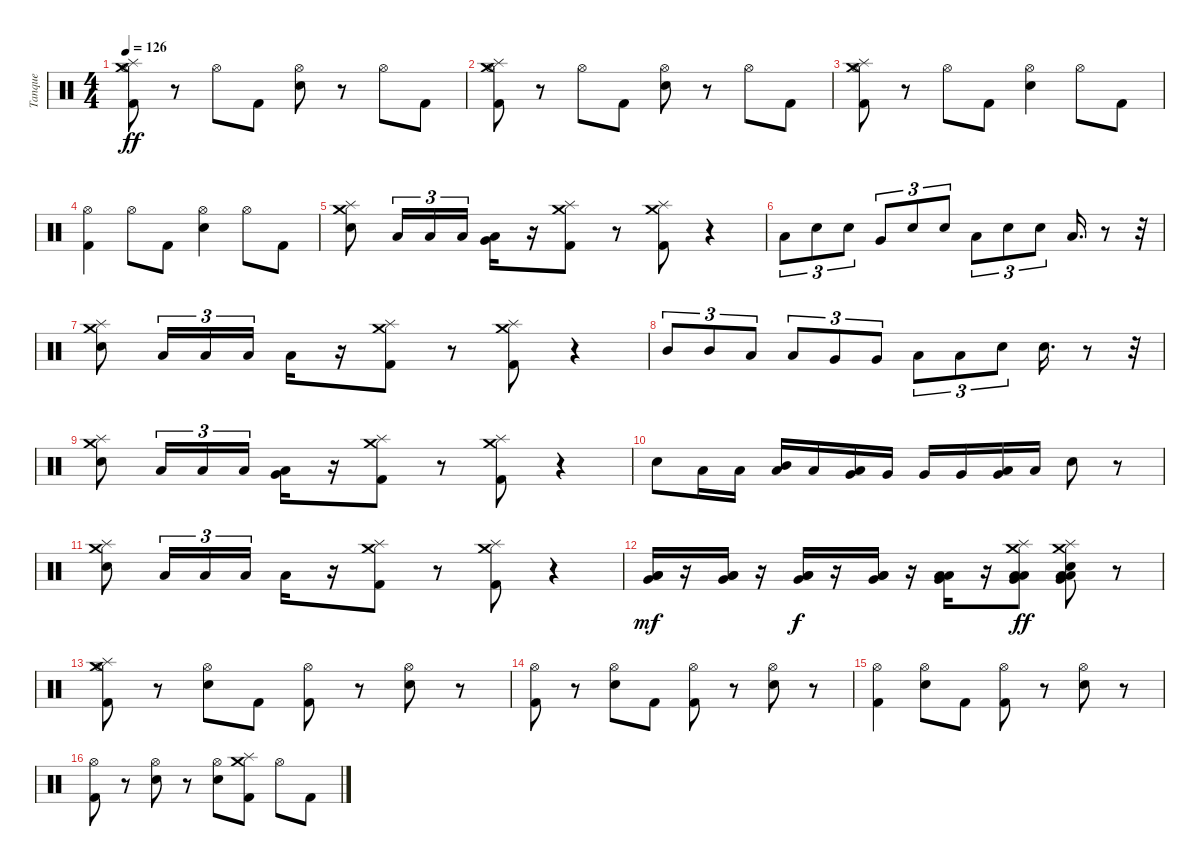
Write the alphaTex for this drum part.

\track ("Tanque" "Tanque") {instrument percussion}
\staff {score}
\articulation defaults
\ts (4 4)
\tempo 126
\clef neutral
\ks c
("Splash (hit)" "Kick (hit) 2" "Crash medium (hit)" "Hi-Hat (open)").8{dy ff} r.8 "Hi-Hat (open)".8 "Kick (hit) 2".8 ("Snare (hit) 2" "Hi-Hat (open)").8 r.8 "Hi-Hat (open)".8 "Kick (hit) 2".8 |
("Kick (hit) 2" "Splash (hit)" "Crash medium (hit)" "Hi-Hat (open)").8 r.8 "Hi-Hat (open)".8 "Kick (hit) 2".8 ("Snare (hit) 2" "Hi-Hat (open)").8 r.8 "Hi-Hat (open)".8 "Kick (hit) 2".8 |
("Hi-Hat (open)" "Crash medium (hit)" "Kick (hit) 2" "Splash (hit)").8 r.8 "Hi-Hat (open)".8 "Kick (hit) 2".8 ("Hi-Hat (open)" "Snare (hit) 2").4 "Hi-Hat (open)".8 "Kick (hit) 2".8 |
("Hi-Hat (open)" "Kick (hit) 2").4 "Hi-Hat (open)".8 "Kick (hit) 2".8 ("Hi-Hat (open)" "Snare (hit) 2").4 "Hi-Hat (open)".8 "Kick (hit) 2".8 |
("Snare (hit) 2" "Splash (hit)" "Crash medium (hit)").8 "Low Tom (hit)".16{tu (3 2)} "Low Floor Tom (hit)".16{tu (3 2)} "Low Tom (hit)".16{tu (3 2)} ("Very Low Tom (hit)" "Low Floor Tom (hit)").16 r.16 ("Kick (hit) 2" "Splash (hit)" "Crash medium (hit)").8 r.8 ("Kick (hit) 2" "Splash (hit)" "Crash medium (hit)").8 r.4 |
"Low Tom (hit)".8{tu (3 2)} "Snare (hit) 2".8{tu (3 2)} "Snare (hit) 2".8{tu (3 2)} "Very Low Tom (hit)".8{tu (3 2)} "Snare (hit) 2".8{tu (3 2)} "Snare (hit) 2".8{tu (3 2)} "Low Floor Tom (hit)".8{tu (3 2)} "Snare (hit) 2".8{tu (3 2)} "Snare (hit) 2".8{tu (3 2)} "Low Floor Tom (hit)".16{d} r.8 r.32 |
("Snare (hit) 2" "Crash medium (hit)" "Splash (hit)").8 "Low Tom (hit)".16{tu (3 2)} "Low Floor Tom (hit)".16{tu (3 2)} "Low Tom (hit)".16{tu (3 2)} "Low Floor Tom (hit)".16 r.16 ("Kick (hit) 2" "Splash (hit)" "Crash medium (hit)").8 r.8 ("Kick (hit) 2" "Splash (hit)" "Crash medium (hit)").8 r.4 |
"Mid Tom (hit)".8{tu (3 2)} "Mid Tom (hit)".8{tu (3 2)} "Low Tom (hit)".8{tu (3 2)} "Low Tom (hit)".8{tu (3 2)} "Very Low Tom (hit)".8{tu (3 2)} "Very Low Tom (hit)".8{tu (3 2)} "Low Floor Tom (hit)".8{tu (3 2)} "Low Floor Tom (hit)".8{tu (3 2)} "Snare (hit) 2".8{tu (3 2)} "Snare (hit) 2".16{d} r.8 r.32 |
("Splash (hit)" "Crash medium (hit)" "Snare (hit) 2").8 "Low Tom (hit)".16{tu (3 2)} "Low Floor Tom (hit)".16{tu (3 2)} "Low Tom (hit)".16{tu (3 2)} ("Low Floor Tom (hit)" "Very Low Tom (hit)").16 r.16 ("Crash medium (hit)" "Splash (hit)" "Kick (hit) 2").8 r.8 ("Crash medium (hit)" "Splash (hit)" "Kick (hit) 2").8 r.4 |
"Snare (hit) 2".8 "Low Tom (hit)".16 "Low Tom (hit)".16 ("Low Tom (hit)" "Mid Tom (hit)").16 "Low Tom (hit)".16 ("Very Low Tom (hit)" "Low Tom (hit)").16 "Very Low Tom (hit)".16 "Very Low Tom (hit)".16 "Very Low Tom (hit)".16 ("Low Floor Tom (hit)" "Very Low Tom (hit)").16 "Low Floor Tom (hit)".16 "Snare (hit) 2".8 r.8 |
("Crash medium (hit)" "Splash (hit)" "Snare (hit) 2").8 "Low Tom (hit)".16{tu (3 2)} "Low Floor Tom (hit)".16{tu (3 2)} "Low Tom (hit)".16{tu (3 2)} "Low Floor Tom (hit)".16 r.16 ("Crash medium (hit)" "Splash (hit)" "Kick (hit) 2").8 r.8 ("Crash medium (hit)" "Splash (hit)" "Kick (hit) 2").8 r.4 |
("Low Floor Tom (hit)" "Very Low Tom (hit)" "Low Tom (hit)").16{dy mf} r.16 ("Low Floor Tom (hit)" "Very Low Tom (hit)" "Low Tom (hit)").16 r.16 ("Low Floor Tom (hit)" "Very Low Tom (hit)" "Low Tom (hit)").16{dy f} r.16 ("Low Floor Tom (hit)" "Very Low Tom (hit)" "Low Tom (hit)").16 r.16 ("Very Low Tom (hit)" "Low Floor Tom (hit)" "Low Tom (hit)").16 r.16 ("Splash (hit)" "Crash medium (hit)" "Low Floor Tom (hit)" "Very Low Tom (hit)" "Low Tom (hit)").8{dy ff} ("Crash medium (hit)" "Splash (hit)" "Low Floor Tom (hit)" "Very Low Tom (hit)" "Low Tom (hit)" "Snare (hit) 2").8 r.8 |
("Kick (hit) 2" "Hi-Hat (open)" "Crash medium (hit)" "Splash (hit)").8 r.8 ("Snare (hit) 2" "Hi-Hat (open)").8 "Kick (hit) 2".8 ("Kick (hit) 2" "Hi-Hat (open)").8 r.8 ("Snare (hit) 2" "Hi-Hat (open)").8 r.8 |
("Kick (hit) 2" "Hi-Hat (open)").8 r.8 ("Snare (hit) 2" "Hi-Hat (open)").8 "Kick (hit) 2".8 ("Kick (hit) 2" "Hi-Hat (open)").8 r.8 ("Hi-Hat (open)" "Snare (hit) 2").8 r.8 |
("Hi-Hat (open)" "Kick (hit) 2").4 ("Hi-Hat (open)" "Snare (hit) 2").8 "Kick (hit) 2".8 ("Hi-Hat (open)" "Kick (hit) 2").8 r.8 ("Hi-Hat (open)" "Snare (hit) 2").8 r.8 |
("Hi-Hat (open)" "Kick (hit) 2").8 r.8 ("Hi-Hat (open)" "Snare (hit) 2").8 r.8 ("Hi-Hat (open)" "Snare (hit) 2").8 ("Kick (hit) 2" "Crash medium (hit)" "Splash (hit)").8 "Hi-Hat (open)".8 "Kick (hit) 2".8
